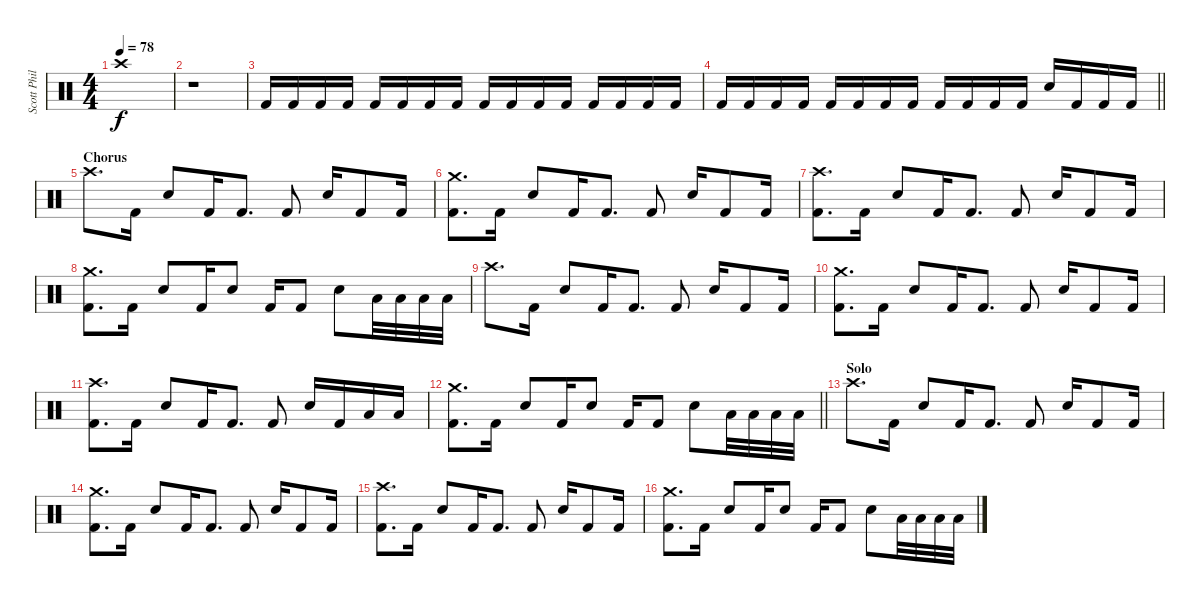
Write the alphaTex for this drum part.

\track ("Scott Phillips (Drums)" "Scott Phil") {instrument percussion}
\staff {score}
\articulation defaults
\ts (4 4)
\tempo 78
\clef neutral
\ks c "Crash high (hit)".1{dy f}
|
r.1 |
"Kick (hit) 2".16 "Kick (hit) 2".16 "Kick (hit) 2".16 "Kick (hit) 2".16 "Kick (hit) 2".16 "Kick (hit) 2".16 "Kick (hit) 2".16 "Kick (hit) 2".16 "Kick (hit) 2".16 "Kick (hit) 2".16 "Kick (hit) 2".16 "Kick (hit) 2".16 "Kick (hit) 2".16 "Kick (hit) 2".16 "Kick (hit) 2".16 "Kick (hit) 2".16 |
\barLineRight lightlight "Kick (hit) 2".16 "Kick (hit) 2".16 "Kick (hit) 2".16 "Kick (hit) 2".16 "Kick (hit) 2".16 "Kick (hit) 2".16 "Kick (hit) 2".16 "Kick (hit) 2".16 "Kick (hit) 2".16 "Kick (hit) 2".16 "Kick (hit) 2".16 "Kick (hit) 2".16 "Electric Snare (hit)".16 "Kick (hit) 2".16 "Kick (hit) 2".16 "Kick (hit) 2".16
|
\section ("" "Chorus")
"Crash high (hit)".8{d} "Kick (hit) 2".16 "Electric Snare (hit)".8 "Kick (hit) 2".16 "Kick (hit) 2".8{d} "Kick (hit) 2".8 "Electric Snare (hit)".16 "Kick (hit) 2".8 "Kick (hit) 2".16 |
("Crash medium (hit)" "Kick (hit) 2").8{d} "Kick (hit) 2".16 "Electric Snare (hit)".8 "Kick (hit) 2".16 "Kick (hit) 2".8{d} "Kick (hit) 2".8 "Electric Snare (hit)".16 "Kick (hit) 2".8 "Kick (hit) 2".16 |
("Crash high (hit)" "Kick (hit) 2").8{d} "Kick (hit) 2".16 "Electric Snare (hit)".8 "Kick (hit) 2".16 "Kick (hit) 2".8{d} "Kick (hit) 2".8 "Electric Snare (hit)".16 "Kick (hit) 2".8 "Kick (hit) 2".16 |
("Crash medium (hit)" "Kick (hit) 2").8{d} "Kick (hit) 2".16 "Electric Snare (hit)".8 "Kick (hit) 2".16 "Electric Snare (hit)".8 "Kick (hit) 2".16 "Kick (hit) 2".8 "Electric Snare (hit)".8 "Low Tom (hit)".32 "Low Tom (hit)".32 "Low Tom (hit)".32 "Low Tom (hit)".32 |
"Crash high (hit)".8{d} "Kick (hit) 2".16 "Electric Snare (hit)".8 "Kick (hit) 2".16 "Kick (hit) 2".8{d} "Kick (hit) 2".8 "Electric Snare (hit)".16 "Kick (hit) 2".8 "Kick (hit) 2".16 |
("Crash medium (hit)" "Kick (hit) 2").8{d} "Kick (hit) 2".16 "Electric Snare (hit)".8 "Kick (hit) 2".16 "Kick (hit) 2".8{d} "Kick (hit) 2".8 "Electric Snare (hit)".16 "Kick (hit) 2".8 "Kick (hit) 2".16 |
("Crash high (hit)" "Kick (hit) 2").8{d} "Kick (hit) 2".16 "Electric Snare (hit)".8 "Kick (hit) 2".16 "Kick (hit) 2".8{d} "Kick (hit) 2".8 "Electric Snare (hit)".16 "Kick (hit) 2".16 "Low Tom (hit)".16 "Low Tom (hit)".16 |
\barLineRight lightlight
("Crash medium (hit)" "Kick (hit) 2").8{d} "Kick (hit) 2".16 "Electric Snare (hit)".8 "Kick (hit) 2".16 "Electric Snare (hit)".8 "Kick (hit) 2".16 "Kick (hit) 2".8 "Electric Snare (hit)".8 "Low Tom (hit)".32 "Low Tom (hit)".32 "Low Tom (hit)".32 "Low Tom (hit)".32 |
\section ("" "Solo")
"Crash high (hit)".8{d} "Kick (hit) 2".16 "Electric Snare (hit)".8 "Kick (hit) 2".16 "Kick (hit) 2".8{d} "Kick (hit) 2".8 "Electric Snare (hit)".16 "Kick (hit) 2".8 "Kick (hit) 2".16 |
("Crash medium (hit)" "Kick (hit) 2").8{d} "Kick (hit) 2".16 "Electric Snare (hit)".8 "Kick (hit) 2".16 "Kick (hit) 2".8{d} "Kick (hit) 2".8 "Electric Snare (hit)".16 "Kick (hit) 2".8 "Kick (hit) 2".16 |
("Crash high (hit)" "Kick (hit) 2").8{d} "Kick (hit) 2".16 "Electric Snare (hit)".8 "Kick (hit) 2".16 "Kick (hit) 2".8{d} "Kick (hit) 2".8 "Electric Snare (hit)".16 "Kick (hit) 2".8 "Kick (hit) 2".16 |
("Crash medium (hit)" "Kick (hit) 2").8{d} "Kick (hit) 2".16 "Electric Snare (hit)".8 "Kick (hit) 2".16 "Electric Snare (hit)".8 "Kick (hit) 2".16 "Kick (hit) 2".8 "Electric Snare (hit)".8 "Low Tom (hit)".32 "Low Tom (hit)".32 "Low Tom (hit)".32 "Low Tom (hit)".32
